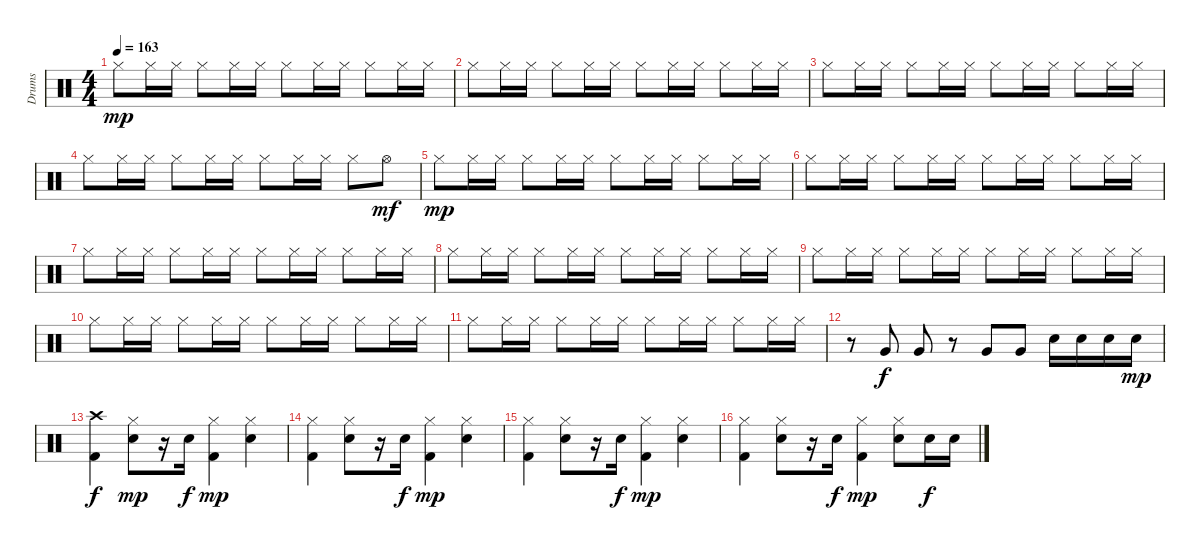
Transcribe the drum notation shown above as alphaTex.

\track ("Drums" "Drums") {instrument percussion}
\staff {score}
\articulation defaults
\ts (4 4)
\tempo 163
\clef neutral
\ks c "Hi-Hat (closed)".8{dy mp} "Hi-Hat (closed)".16 "Hi-Hat (closed)".16 "Hi-Hat (closed)".8 "Hi-Hat (closed)".16 "Hi-Hat (closed)".16 "Hi-Hat (closed)".8 "Hi-Hat (closed)".16 "Hi-Hat (closed)".16 "Hi-Hat (closed)".8 "Hi-Hat (closed)".16 "Hi-Hat (closed)".16
|
"Hi-Hat (closed)".8 "Hi-Hat (closed)".16 "Hi-Hat (closed)".16 "Hi-Hat (closed)".8 "Hi-Hat (closed)".16 "Hi-Hat (closed)".16 "Hi-Hat (closed)".8 "Hi-Hat (closed)".16 "Hi-Hat (closed)".16 "Hi-Hat (closed)".8 "Hi-Hat (closed)".16 "Hi-Hat (closed)".16 |
"Hi-Hat (closed)".8 "Hi-Hat (closed)".16 "Hi-Hat (closed)".16 "Hi-Hat (closed)".8 "Hi-Hat (closed)".16 "Hi-Hat (closed)".16 "Hi-Hat (closed)".8 "Hi-Hat (closed)".16 "Hi-Hat (closed)".16 "Hi-Hat (closed)".8 "Hi-Hat (closed)".16 "Hi-Hat (closed)".16 |
"Hi-Hat (closed)".8 "Hi-Hat (closed)".16 "Hi-Hat (closed)".16 "Hi-Hat (closed)".8 "Hi-Hat (closed)".16 "Hi-Hat (closed)".16 "Hi-Hat (closed)".8 "Hi-Hat (closed)".16 "Hi-Hat (closed)".16 "Hi-Hat (closed)".8 "Hi-Hat (open)".8{dy mf} |
"Hi-Hat (closed)".8{dy mp} "Hi-Hat (closed)".16 "Hi-Hat (closed)".16 "Hi-Hat (closed)".8 "Hi-Hat (closed)".16 "Hi-Hat (closed)".16 "Hi-Hat (closed)".8 "Hi-Hat (closed)".16 "Hi-Hat (closed)".16 "Hi-Hat (closed)".8 "Hi-Hat (closed)".16 "Hi-Hat (closed)".16 |
"Hi-Hat (closed)".8 "Hi-Hat (closed)".16 "Hi-Hat (closed)".16 "Hi-Hat (closed)".8 "Hi-Hat (closed)".16 "Hi-Hat (closed)".16 "Hi-Hat (closed)".8 "Hi-Hat (closed)".16 "Hi-Hat (closed)".16 "Hi-Hat (closed)".8 "Hi-Hat (closed)".16 "Hi-Hat (closed)".16 |
"Hi-Hat (closed)".8 "Hi-Hat (closed)".16 "Hi-Hat (closed)".16 "Hi-Hat (closed)".8 "Hi-Hat (closed)".16 "Hi-Hat (closed)".16 "Hi-Hat (closed)".8 "Hi-Hat (closed)".16 "Hi-Hat (closed)".16 "Hi-Hat (closed)".8 "Hi-Hat (closed)".16 "Hi-Hat (closed)".16 |
"Hi-Hat (closed)".8 "Hi-Hat (closed)".16 "Hi-Hat (closed)".16 "Hi-Hat (closed)".8 "Hi-Hat (closed)".16 "Hi-Hat (closed)".16 "Hi-Hat (closed)".8 "Hi-Hat (closed)".16 "Hi-Hat (closed)".16 "Hi-Hat (closed)".8 "Hi-Hat (closed)".16 "Hi-Hat (closed)".16 |
"Hi-Hat (closed)".8 "Hi-Hat (closed)".16 "Hi-Hat (closed)".16 "Hi-Hat (closed)".8 "Hi-Hat (closed)".16 "Hi-Hat (closed)".16 "Hi-Hat (closed)".8 "Hi-Hat (closed)".16 "Hi-Hat (closed)".16 "Hi-Hat (closed)".8 "Hi-Hat (closed)".16 "Hi-Hat (closed)".16 |
"Hi-Hat (closed)".8 "Hi-Hat (closed)".16 "Hi-Hat (closed)".16 "Hi-Hat (closed)".8 "Hi-Hat (closed)".16 "Hi-Hat (closed)".16 "Hi-Hat (closed)".8 "Hi-Hat (closed)".16 "Hi-Hat (closed)".16 "Hi-Hat (closed)".8 "Hi-Hat (closed)".16 "Hi-Hat (closed)".16 |
"Hi-Hat (closed)".8 "Hi-Hat (closed)".16 "Hi-Hat (closed)".16 "Hi-Hat (closed)".8 "Hi-Hat (closed)".16 "Hi-Hat (closed)".16 "Hi-Hat (closed)".8 "Hi-Hat (closed)".16 "Hi-Hat (closed)".16 "Hi-Hat (closed)".8 "Hi-Hat (closed)".16 "Hi-Hat (closed)".16 |
r.8 "Very Low Tom (hit)".8{dy f} "Very Low Tom (hit)".8 r.8 "Very Low Tom (hit)".8 "Very Low Tom (hit)".8 "Snare (hit) 2".16 "Snare (hit) 2".16 "Snare (hit) 2".16 "Snare (hit) 2".16{dy mp} |
("Crash high (hit)" "Kick (hit) 2").4{dy f} ("Hi-Hat (closed)" "Snare (hit) 2").8{dy mp} r.16 "Snare (hit) 2".16{dy f} ("Hi-Hat (closed)" "Kick (hit) 2").4{dy mp} ("Hi-Hat (closed)" "Snare (hit) 2").4 |
("Hi-Hat (closed)" "Kick (hit) 2").4 ("Hi-Hat (closed)" "Snare (hit) 2").8 r.16 "Snare (hit) 2".16{dy f} ("Hi-Hat (closed)" "Kick (hit) 2").4{dy mp} ("Hi-Hat (closed)" "Snare (hit) 2").4 |
("Hi-Hat (closed)" "Kick (hit) 2").4 ("Hi-Hat (closed)" "Snare (hit) 2").8 r.16 "Snare (hit) 2".16{dy f} ("Hi-Hat (closed)" "Kick (hit) 2").4{dy mp} ("Hi-Hat (closed)" "Snare (hit) 2").4 |
("Hi-Hat (closed)" "Kick (hit) 2").4 ("Hi-Hat (closed)" "Snare (hit) 2").8 r.16 "Snare (hit) 2".16{dy f} ("Hi-Hat (closed)" "Kick (hit) 2").4{dy mp} ("Hi-Hat (closed)" "Snare (hit) 2").8 "Snare (hit) 2".16{dy f} "Snare (hit) 2".16
